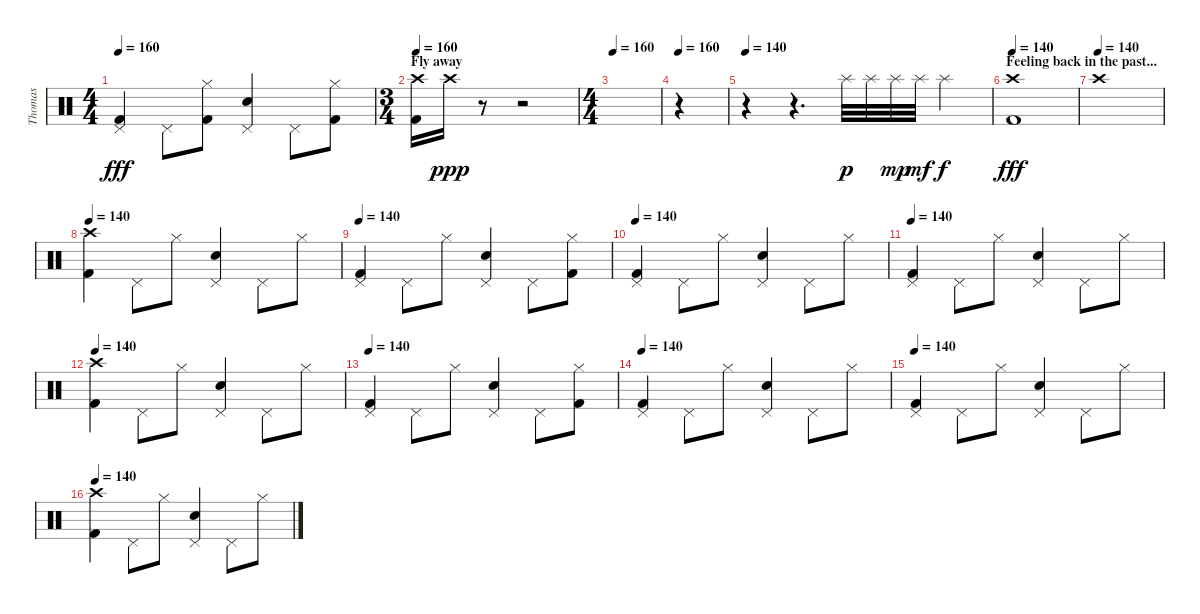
\track ("Thomas" "Thomas") {instrument percussion}
\staff {score}
\articulation defaults
\ts (4 4)
\tempo 160
\clef neutral
\ks c
("Pedal Hi-Hat (hit)" "Kick (hit) 2").4{dy fff} "Pedal Hi-Hat (hit)".8 ("Hi-Hat (closed)" "Kick (hit) 2").8 ("Pedal Hi-Hat (hit)" "Snare (hit) 2").4 "Pedal Hi-Hat (hit)".8 ("Hi-Hat (closed)" "Kick (hit) 2").8 |
\ts (3 4)
\section ("" "Fly away")
\tempo 160
("Crash high (hit)" "Kick (hit) 2").16 "Crash high (hit)".16{dy ppp} r.8 r.2 |
\ts (4 4)
\tempo 160
|
\tempo 160
r.4 |
\tempo 140
r.4 r.4{d} "Splash (hit)".32{dy p} "Splash (hit)".32 "Splash (hit)".32{dy mp} "Splash (hit)".32{dy mf} "Splash (hit)".4{dy f} |
\section ("" "Feeling back in the past...")
\tempo 140
("Crash high (hit)" "Kick (hit) 2").1{dy fff} |
\tempo (140)
"Crash high (hit)".1 |
\tempo 140
("Crash high (hit)" "Kick (hit) 2").4 "Pedal Hi-Hat (hit)".8 "Hi-Hat (closed)".8 ("Pedal Hi-Hat (hit)" "Snare (hit) 2").4 "Pedal Hi-Hat (hit)".8 "Hi-Hat (closed)".8 |
\tempo 140
("Pedal Hi-Hat (hit)" "Kick (hit) 2").4 "Pedal Hi-Hat (hit)".8 "Hi-Hat (closed)".8 ("Pedal Hi-Hat (hit)" "Snare (hit) 2").4 "Pedal Hi-Hat (hit)".8 ("Hi-Hat (closed)" "Kick (hit) 2").8 |
\tempo 140
("Pedal Hi-Hat (hit)" "Kick (hit) 2").4 "Pedal Hi-Hat (hit)".8 "Hi-Hat (closed)".8 ("Pedal Hi-Hat (hit)" "Snare (hit) 2").4 "Pedal Hi-Hat (hit)".8 "Hi-Hat (closed)".8 |
\tempo 140
("Pedal Hi-Hat (hit)" "Kick (hit) 2").4 "Pedal Hi-Hat (hit)".8 "Hi-Hat (closed)".8 ("Pedal Hi-Hat (hit)" "Snare (hit) 2").4 "Pedal Hi-Hat (hit)".8 "Hi-Hat (closed)".8 |
\tempo 140
("Crash high (hit)" "Kick (hit) 2").4 "Pedal Hi-Hat (hit)".8 "Hi-Hat (closed)".8 ("Pedal Hi-Hat (hit)" "Snare (hit) 2").4 "Pedal Hi-Hat (hit)".8 "Hi-Hat (closed)".8 |
\tempo 140
("Pedal Hi-Hat (hit)" "Kick (hit) 2").4 "Pedal Hi-Hat (hit)".8 "Hi-Hat (closed)".8 ("Pedal Hi-Hat (hit)" "Snare (hit) 2").4 "Pedal Hi-Hat (hit)".8 ("Hi-Hat (closed)" "Kick (hit) 2").8 |
\tempo 140
("Pedal Hi-Hat (hit)" "Kick (hit) 2").4 "Pedal Hi-Hat (hit)".8 "Hi-Hat (closed)".8 ("Pedal Hi-Hat (hit)" "Snare (hit) 2").4 "Pedal Hi-Hat (hit)".8 "Hi-Hat (closed)".8 |
\tempo 140
("Pedal Hi-Hat (hit)" "Kick (hit) 2").4 "Pedal Hi-Hat (hit)".8 "Hi-Hat (closed)".8 ("Pedal Hi-Hat (hit)" "Snare (hit) 2").4 "Pedal Hi-Hat (hit)".8 "Hi-Hat (closed)".8 |
\tempo 140
("Crash high (hit)" "Kick (hit) 2").4 "Pedal Hi-Hat (hit)".8 "Hi-Hat (closed)".8 ("Pedal Hi-Hat (hit)" "Snare (hit) 2").4 "Pedal Hi-Hat (hit)".8 "Hi-Hat (closed)".8
